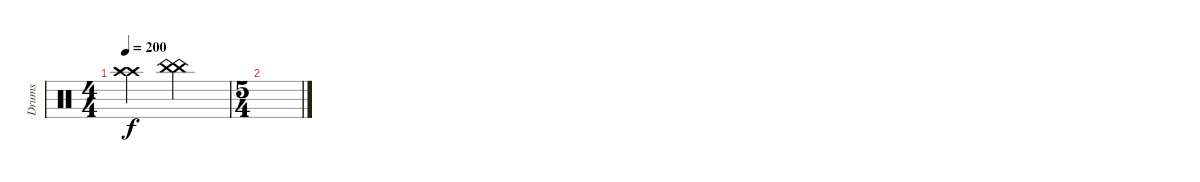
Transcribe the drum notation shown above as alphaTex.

\track ("Drums" "Drums") {instrument percussion}
\staff {score}
\articulation defaults
\ts (4 4)
\tempo 200
\clef neutral
\ks c
("Crash high (hit)" "Crash high (hit)").2{dy f} ("China (hit)" "China (hit)").2 |
\ts (5 4)
